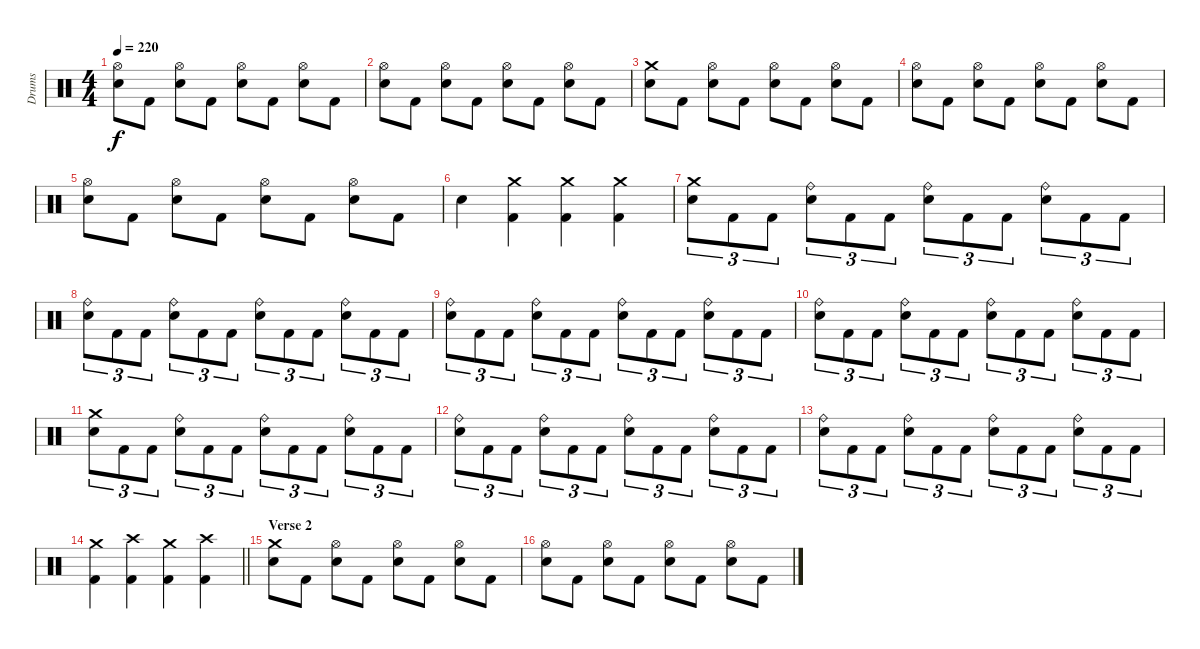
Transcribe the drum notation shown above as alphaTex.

\track ("Drums" "Drums") {instrument percussion}
\staff {score}
\articulation defaults
\ts (4 4)
\tempo 220
\clef neutral
\ks c
("Hi-Hat (open)" "Electric Snare (hit)").8{dy f} "Kick (hit) 2".8 ("Hi-Hat (open)" "Electric Snare (hit)").8 "Kick (hit) 2".8 ("Hi-Hat (open)" "Electric Snare (hit)").8 "Kick (hit) 2".8 ("Hi-Hat (open)" "Electric Snare (hit)").8 "Kick (hit) 2".8 |
("Hi-Hat (open)" "Electric Snare (hit)").8 "Kick (hit) 2".8 ("Hi-Hat (open)" "Electric Snare (hit)").8 "Kick (hit) 2".8 ("Hi-Hat (open)" "Electric Snare (hit)").8 "Kick (hit) 2".8 ("Hi-Hat (open)" "Electric Snare (hit)").8 "Kick (hit) 2".8 |
("Crash medium (hit)" "Electric Snare (hit)").8 "Kick (hit) 2".8 ("Hi-Hat (open)" "Electric Snare (hit)").8 "Kick (hit) 2".8 ("Hi-Hat (open)" "Electric Snare (hit)").8 "Kick (hit) 2".8 ("Hi-Hat (open)" "Electric Snare (hit)").8 "Kick (hit) 2".8 |
("Hi-Hat (open)" "Electric Snare (hit)").8 "Kick (hit) 2".8 ("Hi-Hat (open)" "Electric Snare (hit)").8 "Kick (hit) 2".8 ("Hi-Hat (open)" "Electric Snare (hit)").8 "Kick (hit) 2".8 ("Hi-Hat (open)" "Electric Snare (hit)").8 "Kick (hit) 2".8 |
("Hi-Hat (open)" "Electric Snare (hit)").8 "Kick (hit) 2".8 ("Hi-Hat (open)" "Electric Snare (hit)").8 "Kick (hit) 2".8 ("Hi-Hat (open)" "Electric Snare (hit)").8 "Kick (hit) 2".8 ("Hi-Hat (open)" "Electric Snare (hit)").8 "Kick (hit) 2".8 |
"Electric Snare (hit)".4 ("Crash medium (hit)" "Kick (hit) 2").4 ("Crash medium (hit)" "Kick (hit) 2").4 ("Crash medium (hit)" "Kick (hit) 2").4 |
("Crash medium (hit)" "Electric Snare (hit)").8{tu (3 2)} "Kick (hit) 2".8{tu (3 2)} "Kick (hit) 2".8{tu (3 2)} ("Ride (bell)" "Electric Snare (hit)").8{tu (3 2)} "Kick (hit) 2".8{tu (3 2)} "Kick (hit) 2".8{tu (3 2)} ("Ride (bell)" "Electric Snare (hit)").8{tu (3 2)} "Kick (hit) 2".8{tu (3 2)} "Kick (hit) 2".8{tu (3 2)} ("Ride (bell)" "Electric Snare (hit)").8{tu (3 2)} "Kick (hit) 2".8{tu (3 2)} "Kick (hit) 2".8{tu (3 2)} |
("Ride (bell)" "Electric Snare (hit)").8{tu (3 2)} "Kick (hit) 2".8{tu (3 2)} "Kick (hit) 2".8{tu (3 2)} ("Ride (bell)" "Electric Snare (hit)").8{tu (3 2)} "Kick (hit) 2".8{tu (3 2)} "Kick (hit) 2".8{tu (3 2)} ("Ride (bell)" "Electric Snare (hit)").8{tu (3 2)} "Kick (hit) 2".8{tu (3 2)} "Kick (hit) 2".8{tu (3 2)} ("Ride (bell)" "Electric Snare (hit)").8{tu (3 2)} "Kick (hit) 2".8{tu (3 2)} "Kick (hit) 2".8{tu (3 2)} |
("Ride (bell)" "Electric Snare (hit)").8{tu (3 2)} "Kick (hit) 2".8{tu (3 2)} "Kick (hit) 2".8{tu (3 2)} ("Ride (bell)" "Electric Snare (hit)").8{tu (3 2)} "Kick (hit) 2".8{tu (3 2)} "Kick (hit) 2".8{tu (3 2)} ("Ride (bell)" "Electric Snare (hit)").8{tu (3 2)} "Kick (hit) 2".8{tu (3 2)} "Kick (hit) 2".8{tu (3 2)} ("Ride (bell)" "Electric Snare (hit)").8{tu (3 2)} "Kick (hit) 2".8{tu (3 2)} "Kick (hit) 2".8{tu (3 2)} |
("Ride (bell)" "Electric Snare (hit)").8{tu (3 2)} "Kick (hit) 2".8{tu (3 2)} "Kick (hit) 2".8{tu (3 2)} ("Ride (bell)" "Electric Snare (hit)").8{tu (3 2)} "Kick (hit) 2".8{tu (3 2)} "Kick (hit) 2".8{tu (3 2)} ("Ride (bell)" "Electric Snare (hit)").8{tu (3 2)} "Kick (hit) 2".8{tu (3 2)} "Kick (hit) 2".8{tu (3 2)} ("Ride (bell)" "Electric Snare (hit)").8{tu (3 2)} "Kick (hit) 2".8{tu (3 2)} "Kick (hit) 2".8{tu (3 2)} |
("Crash medium (hit)" "Electric Snare (hit)").8{tu (3 2)} "Kick (hit) 2".8{tu (3 2)} "Kick (hit) 2".8{tu (3 2)} ("Ride (bell)" "Electric Snare (hit)").8{tu (3 2)} "Kick (hit) 2".8{tu (3 2)} "Kick (hit) 2".8{tu (3 2)} ("Ride (bell)" "Electric Snare (hit)").8{tu (3 2)} "Kick (hit) 2".8{tu (3 2)} "Kick (hit) 2".8{tu (3 2)} ("Ride (bell)" "Electric Snare (hit)").8{tu (3 2)} "Kick (hit) 2".8{tu (3 2)} "Kick (hit) 2".8{tu (3 2)} |
("Ride (bell)" "Electric Snare (hit)").8{tu (3 2)} "Kick (hit) 2".8{tu (3 2)} "Kick (hit) 2".8{tu (3 2)} ("Ride (bell)" "Electric Snare (hit)").8{tu (3 2)} "Kick (hit) 2".8{tu (3 2)} "Kick (hit) 2".8{tu (3 2)} ("Ride (bell)" "Electric Snare (hit)").8{tu (3 2)} "Kick (hit) 2".8{tu (3 2)} "Kick (hit) 2".8{tu (3 2)} ("Ride (bell)" "Electric Snare (hit)").8{tu (3 2)} "Kick (hit) 2".8{tu (3 2)} "Kick (hit) 2".8{tu (3 2)} |
("Ride (bell)" "Electric Snare (hit)").8{tu (3 2)} "Kick (hit) 2".8{tu (3 2)} "Kick (hit) 2".8{tu (3 2)} ("Ride (bell)" "Electric Snare (hit)").8{tu (3 2)} "Kick (hit) 2".8{tu (3 2)} "Kick (hit) 2".8{tu (3 2)} ("Ride (bell)" "Electric Snare (hit)").8{tu (3 2)} "Kick (hit) 2".8{tu (3 2)} "Kick (hit) 2".8{tu (3 2)} ("Ride (bell)" "Electric Snare (hit)").8{tu (3 2)} "Kick (hit) 2".8{tu (3 2)} "Kick (hit) 2".8{tu (3 2)} |
\barLineRight lightlight
("Crash medium (hit)" "Kick (hit) 2").4 ("Crash high (hit)" "Kick (hit) 2").4 ("Crash medium (hit)" "Kick (hit) 2").4 ("Crash high (hit)" "Kick (hit) 2").4 |
\section ("" "Verse 2")
("Crash medium (hit)" "Electric Snare (hit)").8 "Kick (hit) 2".8 ("Hi-Hat (open)" "Electric Snare (hit)").8 "Kick (hit) 2".8 ("Hi-Hat (open)" "Electric Snare (hit)").8 "Kick (hit) 2".8 ("Hi-Hat (open)" "Electric Snare (hit)").8 "Kick (hit) 2".8 |
("Hi-Hat (open)" "Electric Snare (hit)").8 "Kick (hit) 2".8 ("Hi-Hat (open)" "Electric Snare (hit)").8 "Kick (hit) 2".8 ("Hi-Hat (open)" "Electric Snare (hit)").8 "Kick (hit) 2".8 ("Hi-Hat (open)" "Electric Snare (hit)").8 "Kick (hit) 2".8
